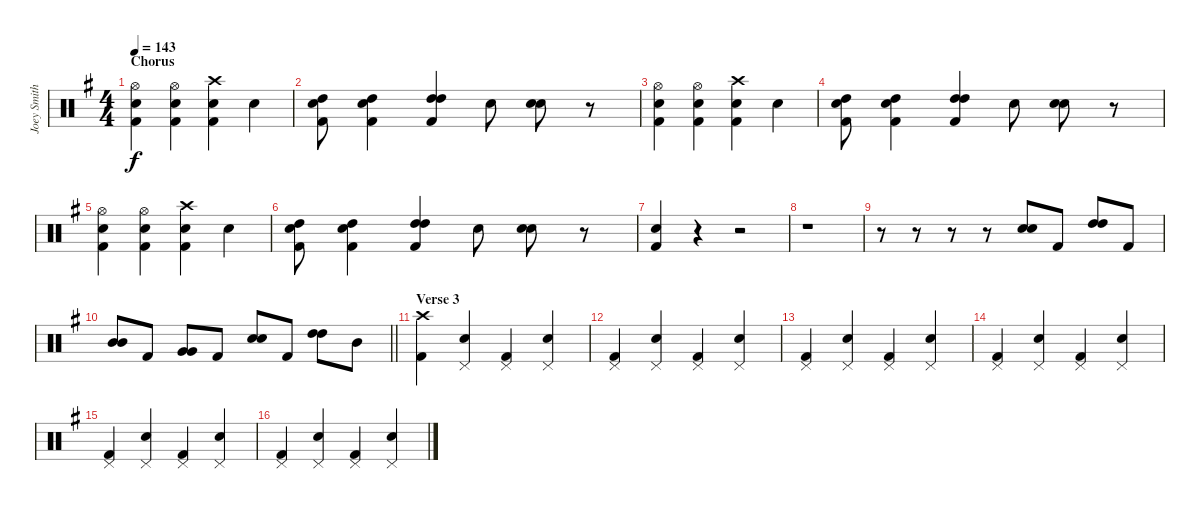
\track ("Joey Smith" "Joey Smith") {instrument percussion}
\staff {score}
\articulation defaults
\ts (4 4)
\section ("" "Chorus")
\tempo 143
\clef neutral
\ks g
("Hi-Hat (open)" "Snare (hit) 2" "Kick (hit) 2").4{dy f} ("Hi-Hat (open)" "Snare (hit) 2" "Kick (hit) 2").4 ("Crash high (hit)" "Snare (hit) 2" "Kick (hit) 2").4 "Snare (hit) 2".4 |
("Snare (hit) 2" "High Tom (hit)" "Kick (hit) 2").8 ("Snare (hit) 2" "High Tom (hit)" "Kick (hit) 2").4 ("High Tom (hit)" "High Tom (hit)" "Kick (hit) 2").4 "Snare (hit) 2".8 ("Snare (hit) 2" "Snare (hit) 2").8{bd 240} r.8 |
("Hi-Hat (open)" "Snare (hit) 2" "Kick (hit) 2").4 ("Hi-Hat (open)" "Snare (hit) 2" "Kick (hit) 2").4 ("Crash high (hit)" "Snare (hit) 2" "Kick (hit) 2").4 "Snare (hit) 2".4 |
("Snare (hit) 2" "High Tom (hit)" "Kick (hit) 2").8 ("Snare (hit) 2" "High Tom (hit)" "Kick (hit) 2").4 ("High Tom (hit)" "High Tom (hit)" "Kick (hit) 2").4 "Snare (hit) 2".8 ("Snare (hit) 2" "Snare (hit) 2").8{bd 240} r.8 |
("Hi-Hat (open)" "Snare (hit) 2" "Kick (hit) 2").4 ("Hi-Hat (open)" "Snare (hit) 2" "Kick (hit) 2").4 ("Crash high (hit)" "Snare (hit) 2" "Kick (hit) 2").4 "Snare (hit) 2".4 |
("Snare (hit) 2" "High Tom (hit)" "Kick (hit) 2").8 ("Snare (hit) 2" "High Tom (hit)" "Kick (hit) 2").4 ("High Tom (hit)" "High Tom (hit)" "Kick (hit) 2").4 "Snare (hit) 2".8 ("Snare (hit) 2" "Snare (hit) 2").8{bd 240} r.8 |
("Snare (hit) 2" "Kick (hit) 2").4 r.4 r.2 |
r.1 |
r.8 r.8 r.8 r.8 ("Snare (hit) 2" "Snare (hit) 2").8{bd 240} "Kick (hit) 2".8 ("High Tom (hit)" "High Tom (hit)").8{bd 240} "Kick (hit) 2".8 |
\barLineRight lightlight
("Mid Tom (hit)" "Mid Tom (hit)").8{bd 240} "Kick (hit) 2".8 ("Very Low Tom (hit)" "Very Low Tom (hit)").8 "Kick (hit) 2".8 ("Snare (hit) 2" "Snare (hit) 2").8{bd 240} "Kick (hit) 2".8 ("High Tom (hit)" "High Tom (hit)").8{bd 240} "Mid Tom (hit)".8 |
\section ("" "Verse 3")
("Crash high (hit)" "Kick (hit) 2").4 ("Pedal Hi-Hat (hit)" "Snare (hit) 2").4 ("Pedal Hi-Hat (hit)" "Kick (hit) 2").4 ("Pedal Hi-Hat (hit)" "Snare (hit) 2").4 |
("Pedal Hi-Hat (hit)" "Kick (hit) 2").4 ("Pedal Hi-Hat (hit)" "Snare (hit) 2").4 ("Pedal Hi-Hat (hit)" "Kick (hit) 2").4 ("Pedal Hi-Hat (hit)" "Snare (hit) 2").4 |
("Pedal Hi-Hat (hit)" "Kick (hit) 2").4 ("Pedal Hi-Hat (hit)" "Snare (hit) 2").4 ("Pedal Hi-Hat (hit)" "Kick (hit) 2").4 ("Pedal Hi-Hat (hit)" "Snare (hit) 2").4 |
("Pedal Hi-Hat (hit)" "Kick (hit) 2").4 ("Pedal Hi-Hat (hit)" "Snare (hit) 2").4 ("Pedal Hi-Hat (hit)" "Kick (hit) 2").4 ("Pedal Hi-Hat (hit)" "Snare (hit) 2").4 |
("Pedal Hi-Hat (hit)" "Kick (hit) 2").4 ("Pedal Hi-Hat (hit)" "Snare (hit) 2").4 ("Pedal Hi-Hat (hit)" "Kick (hit) 2").4 ("Pedal Hi-Hat (hit)" "Snare (hit) 2").4 |
("Pedal Hi-Hat (hit)" "Kick (hit) 2").4 ("Pedal Hi-Hat (hit)" "Snare (hit) 2").4 ("Pedal Hi-Hat (hit)" "Kick (hit) 2").4 ("Pedal Hi-Hat (hit)" "Snare (hit) 2").4
